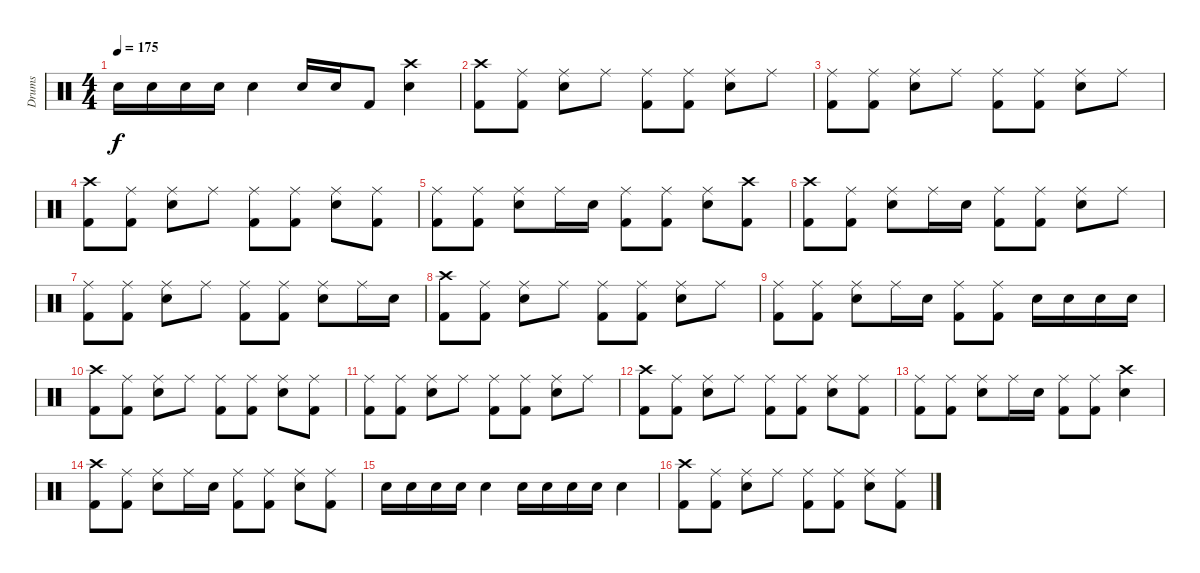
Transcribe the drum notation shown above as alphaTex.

\track ("Drums" "Drums") {instrument percussion}
\staff {score}
\articulation defaults
\ts (4 4)
\tempo 175
\clef neutral
\ks c "Snare (hit) 2".16{dy f} "Snare (hit) 2".16 "Snare (hit) 2".16 "Snare (hit) 2".16 "Snare (hit) 2".4 "Snare (hit) 2".16 "Snare (hit) 2".16 "Kick (hit) 2".8
("Crash high (hit)" "Snare (hit) 2").4 |
("Crash high (hit)" "Kick (hit) 2").8 ("Ride (middle)" "Kick (hit) 2").8 ("Ride (middle)" "Snare (hit) 2").8 "Ride (middle)".8 ("Ride (middle)" "Kick (hit) 2").8 ("Ride (middle)" "Kick (hit) 2").8 ("Ride (middle)" "Snare (hit) 2").8 "Ride (middle)".8 |
("Ride (middle)" "Kick (hit) 2").8 ("Ride (middle)" "Kick (hit) 2").8 ("Ride (middle)" "Snare (hit) 2").8 "Ride (middle)".8 ("Ride (middle)" "Kick (hit) 2").8 ("Ride (middle)" "Kick (hit) 2").8 ("Ride (middle)" "Snare (hit) 2").8 "Ride (middle)".8 |
("Crash high (hit)" "Kick (hit) 2").8 ("Ride (middle)" "Kick (hit) 2").8 ("Ride (middle)" "Snare (hit) 2").8 "Ride (middle)".8 ("Ride (middle)" "Kick (hit) 2").8 ("Ride (middle)" "Kick (hit) 2").8 ("Ride (middle)" "Snare (hit) 2").8 ("Ride (middle)" "Kick (hit) 2").8 |
("Ride (middle)" "Kick (hit) 2").8 ("Ride (middle)" "Kick (hit) 2").8 ("Ride (middle)" "Snare (hit) 2").8 "Ride (middle)".16 "Snare (hit) 2".16 ("Ride (middle)" "Kick (hit) 2").8 ("Ride (middle)" "Kick (hit) 2").8 ("Ride (middle)" "Snare (hit) 2").8 ("Crash high (hit)" "Kick (hit) 2").8 |
("Crash high (hit)" "Kick (hit) 2").8 ("Ride (middle)" "Kick (hit) 2").8 ("Ride (middle)" "Snare (hit) 2").8 "Ride (middle)".16 "Snare (hit) 2".16 ("Ride (middle)" "Kick (hit) 2").8 ("Ride (middle)" "Kick (hit) 2").8 ("Ride (middle)" "Snare (hit) 2").8 "Ride (middle)".8 |
("Ride (middle)" "Kick (hit) 2").8 ("Ride (middle)" "Kick (hit) 2").8 ("Ride (middle)" "Snare (hit) 2").8 "Ride (middle)".8 ("Ride (middle)" "Kick (hit) 2").8 ("Ride (middle)" "Kick (hit) 2").8 ("Ride (middle)" "Snare (hit) 2").8 "Ride (middle)".16 "Snare (hit) 2".16 |
("Crash high (hit)" "Kick (hit) 2").8 ("Ride (middle)" "Kick (hit) 2").8 ("Ride (middle)" "Snare (hit) 2").8 "Ride (middle)".8 ("Ride (middle)" "Kick (hit) 2").8 ("Ride (middle)" "Kick (hit) 2").8 ("Ride (middle)" "Snare (hit) 2").8 "Ride (middle)".8 |
("Ride (middle)" "Kick (hit) 2").8 ("Ride (middle)" "Kick (hit) 2").8 ("Ride (middle)" "Snare (hit) 2").8 "Ride (middle)".16 "Snare (hit) 2".16 ("Ride (middle)" "Kick (hit) 2").8 ("Ride (middle)" "Kick (hit) 2").8 "Snare (hit) 2".16 "Snare (hit) 2".16 "Snare (hit) 2".16 "Snare (hit) 2".16 |
("Crash high (hit)" "Kick (hit) 2").8 ("Ride (middle)" "Kick (hit) 2").8 ("Ride (middle)" "Snare (hit) 2").8 "Ride (middle)".8 ("Ride (middle)" "Kick (hit) 2").8 ("Ride (middle)" "Kick (hit) 2").8 ("Ride (middle)" "Snare (hit) 2").8 ("Ride (middle)" "Kick (hit) 2").8 |
("Ride (middle)" "Kick (hit) 2").8 ("Ride (middle)" "Kick (hit) 2").8 ("Ride (middle)" "Snare (hit) 2").8 "Ride (middle)".8 ("Ride (middle)" "Kick (hit) 2").8 ("Ride (middle)" "Kick (hit) 2").8 ("Ride (middle)" "Snare (hit) 2").8 "Ride (middle)".8 |
("Crash high (hit)" "Kick (hit) 2").8 ("Ride (middle)" "Kick (hit) 2").8 ("Ride (middle)" "Snare (hit) 2").8 "Ride (middle)".8 ("Ride (middle)" "Kick (hit) 2").8 ("Ride (middle)" "Kick (hit) 2").8 ("Ride (middle)" "Snare (hit) 2").8 ("Ride (middle)" "Kick (hit) 2").8 |
("Ride (middle)" "Kick (hit) 2").8 ("Ride (middle)" "Kick (hit) 2").8 ("Ride (middle)" "Snare (hit) 2").8 "Ride (middle)".16 "Snare (hit) 2".16 ("Ride (middle)" "Kick (hit) 2").8 ("Ride (middle)" "Kick (hit) 2").8 ("Crash high (hit)" "Snare (hit) 2").4 |
("Crash high (hit)" "Kick (hit) 2").8 ("Ride (middle)" "Kick (hit) 2").8 ("Ride (middle)" "Snare (hit) 2").8 "Ride (middle)".16 "Snare (hit) 2".16 ("Ride (middle)" "Kick (hit) 2").8 ("Ride (middle)" "Kick (hit) 2").8 ("Ride (middle)" "Snare (hit) 2").8 ("Ride (middle)" "Kick (hit) 2").8 |
"Snare (hit) 2".16 "Snare (hit) 2".16 "Snare (hit) 2".16 "Snare (hit) 2".16 "Snare (hit) 2".4 "Snare (hit) 2".16 "Snare (hit) 2".16 "Snare (hit) 2".16 "Snare (hit) 2".16 "Snare (hit) 2".4 |
("Crash high (hit)" "Kick (hit) 2").8 ("Ride (middle)" "Kick (hit) 2").8 ("Ride (middle)" "Snare (hit) 2").8 "Ride (middle)".8 ("Ride (middle)" "Kick (hit) 2").8 ("Ride (middle)" "Kick (hit) 2").8 ("Ride (middle)" "Snare (hit) 2").8 ("Ride (middle)" "Kick (hit) 2").8
